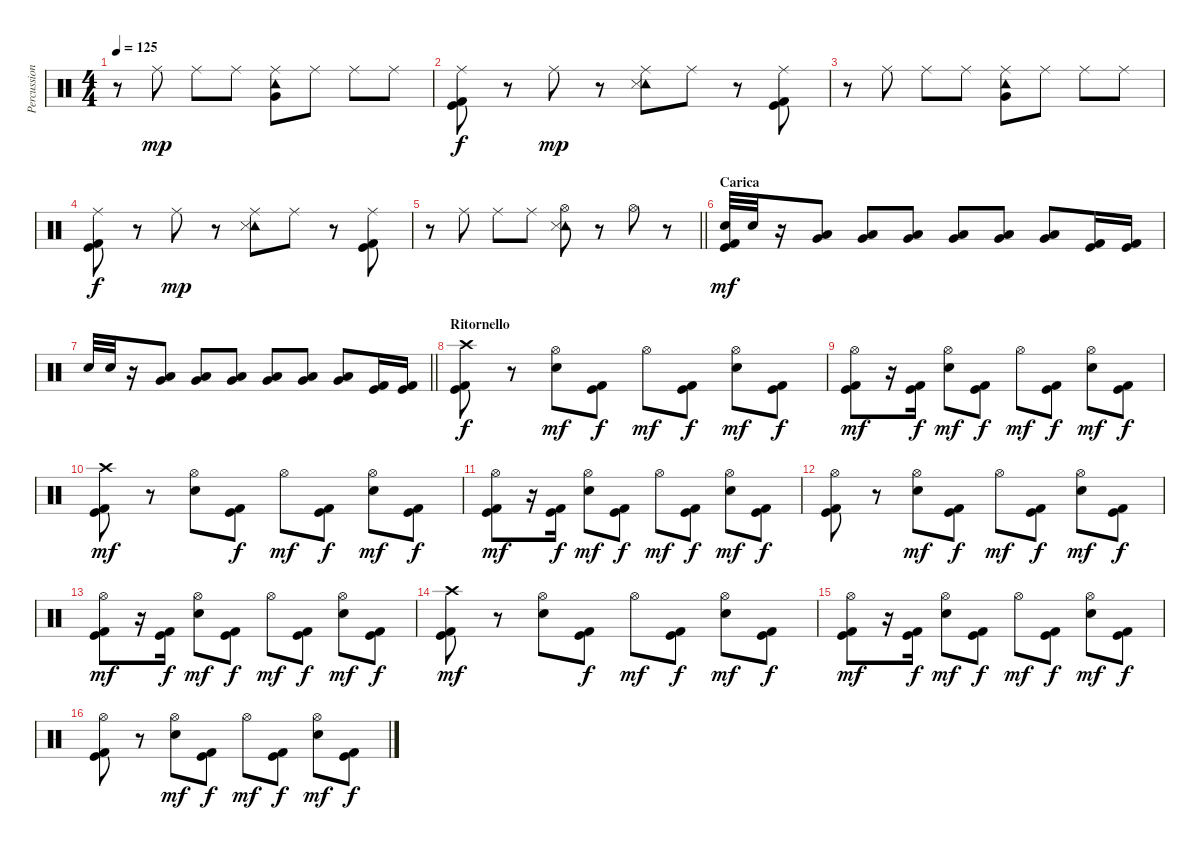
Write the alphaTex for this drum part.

\track ("Percussioni" "Percussion") {instrument percussion}
\staff {score}
\articulation defaults
\ts (4 4)
\tempo 125
\clef neutral
\ks c
r.8{dy mp} "Ride (middle)".8 "Ride (middle)".8 "Ride (middle)".8 ("Ride (middle)" "Tambourine (hit)" "Very Low Tom (hit)").8 "Ride (middle)".8 "Ride (middle)".8 "Ride (middle)".8 |
("Ride (middle)" "Kick (hit)" "Kick (hit) 2").8{dy f} r.8 "Ride (middle)".8{dy mp} r.8 ("Ride (middle)" "Tambourine (hit)" "Snare (side stick) 3").8 "Ride (middle)".8 r.8 ("Ride (middle)" "Kick (hit)" "Kick (hit) 2").8 |
r.8 "Ride (middle)".8 "Ride (middle)".8 "Ride (middle)".8 ("Ride (middle)" "Tambourine (hit)" "Very Low Tom (hit)").8 "Ride (middle)".8 "Ride (middle)".8 "Ride (middle)".8 |
("Ride (middle)" "Kick (hit)" "Kick (hit) 2").8{dy f} r.8 "Ride (middle)".8{dy mp} r.8 ("Ride (middle)" "Tambourine (hit)" "Snare (side stick) 3").8 "Ride (middle)".8 r.8 ("Ride (middle)" "Kick (hit)" "Kick (hit) 2").8 |
\barLineRight lightlight
r.8 "Ride (middle)".8 "Ride (middle)".8 "Ride (middle)".8 ("Hi-Hat (open)" "Tambourine (hit)" "Snare (side stick) 3").8 r.8 "Hi-Hat (open)".8 r.8 |
\section ("" "Carica")
("Electric Snare (hit)" "Kick (hit)" "Kick (hit) 2").32{dy mf} "Electric Snare (hit)".32 r.16 ("Very Low Tom (hit)" "Low Tom (hit)").8 ("Very Low Tom (hit)" "Low Tom (hit)").8 ("Very Low Tom (hit)" "Low Tom (hit)").8 ("Very Low Tom (hit)" "Low Tom (hit)").8 ("Very Low Tom (hit)" "Low Tom (hit)").8 ("Very Low Tom (hit)" "Low Tom (hit)").8 ("Kick (hit)" "Kick (hit) 2").16 ("Kick (hit)" "Kick (hit) 2").16 |
\barLineRight lightlight "Electric Snare (hit)".32 "Electric Snare (hit)".32
r.16 ("Very Low Tom (hit)" "Low Tom (hit)").8 ("Very Low Tom (hit)" "Low Tom (hit)").8 ("Very Low Tom (hit)" "Low Tom (hit)").8 ("Very Low Tom (hit)" "Low Tom (hit)").8 ("Very Low Tom (hit)" "Low Tom (hit)").8 ("Very Low Tom (hit)" "Low Tom (hit)").8 ("Kick (hit)" "Kick (hit) 2").16 ("Kick (hit)" "Kick (hit) 2").16 |
\section ("" "Ritornello")
("Crash high (hit)" "Kick (hit)" "Kick (hit) 2").8{dy f} r.8 ("Hi-Hat (open)" "Electric Snare (hit)").8{dy mf} ("Kick (hit)" "Kick (hit) 2").8{dy f} "Hi-Hat (open)".8{dy mf} ("Kick (hit)" "Kick (hit) 2").8{dy f} ("Hi-Hat (open)" "Electric Snare (hit)").8{dy mf} ("Kick (hit)" "Kick (hit) 2").8{dy f} |
("Hi-Hat (open)" "Kick (hit)" "Kick (hit) 2").8{dy mf} r.16 ("Kick (hit)" "Kick (hit) 2").16{dy f} ("Hi-Hat (open)" "Electric Snare (hit)").8{dy mf} ("Kick (hit)" "Kick (hit) 2").8{dy f} "Hi-Hat (open)".8{dy mf} ("Kick (hit)" "Kick (hit) 2").8{dy f} ("Hi-Hat (open)" "Electric Snare (hit)").8{dy mf} ("Kick (hit)" "Kick (hit) 2").8{dy f} |
("Crash high (hit)" "Kick (hit)" "Kick (hit) 2").8{dy mf} r.8 ("Hi-Hat (open)" "Electric Snare (hit)").8 ("Kick (hit)" "Kick (hit) 2").8{dy f} "Hi-Hat (open)".8{dy mf} ("Kick (hit)" "Kick (hit) 2").8{dy f} ("Hi-Hat (open)" "Electric Snare (hit)").8{dy mf} ("Kick (hit)" "Kick (hit) 2").8{dy f} |
("Hi-Hat (open)" "Kick (hit)" "Kick (hit) 2").8{dy mf} r.16 ("Kick (hit)" "Kick (hit) 2").16{dy f} ("Hi-Hat (open)" "Electric Snare (hit)").8{dy mf} ("Kick (hit)" "Kick (hit) 2").8{dy f} "Hi-Hat (open)".8{dy mf} ("Kick (hit)" "Kick (hit) 2").8{dy f} ("Hi-Hat (open)" "Electric Snare (hit)").8{dy mf} ("Kick (hit)" "Kick (hit) 2").8{dy f} |
("Hi-Hat (open)" "Kick (hit)" "Kick (hit) 2").8 r.8 ("Hi-Hat (open)" "Electric Snare (hit)").8{dy mf} ("Kick (hit)" "Kick (hit) 2").8{dy f} "Hi-Hat (open)".8{dy mf} ("Kick (hit)" "Kick (hit) 2").8{dy f} ("Hi-Hat (open)" "Electric Snare (hit)").8{dy mf} ("Kick (hit)" "Kick (hit) 2").8{dy f} |
("Hi-Hat (open)" "Kick (hit)" "Kick (hit) 2").8{dy mf} r.16 ("Kick (hit)" "Kick (hit) 2").16{dy f} ("Hi-Hat (open)" "Electric Snare (hit)").8{dy mf} ("Kick (hit)" "Kick (hit) 2").8{dy f} "Hi-Hat (open)".8{dy mf} ("Kick (hit)" "Kick (hit) 2").8{dy f} ("Hi-Hat (open)" "Electric Snare (hit)").8{dy mf} ("Kick (hit)" "Kick (hit) 2").8{dy f} |
("Crash high (hit)" "Kick (hit)" "Kick (hit) 2").8{dy mf} r.8 ("Hi-Hat (open)" "Electric Snare (hit)").8 ("Kick (hit)" "Kick (hit) 2").8{dy f} "Hi-Hat (open)".8{dy mf} ("Kick (hit)" "Kick (hit) 2").8{dy f} ("Hi-Hat (open)" "Electric Snare (hit)").8{dy mf} ("Kick (hit)" "Kick (hit) 2").8{dy f} |
("Hi-Hat (open)" "Kick (hit)" "Kick (hit) 2").8{dy mf} r.16 ("Kick (hit)" "Kick (hit) 2").16{dy f} ("Hi-Hat (open)" "Electric Snare (hit)").8{dy mf} ("Kick (hit)" "Kick (hit) 2").8{dy f} "Hi-Hat (open)".8{dy mf} ("Kick (hit)" "Kick (hit) 2").8{dy f} ("Hi-Hat (open)" "Electric Snare (hit)").8{dy mf} ("Kick (hit)" "Kick (hit) 2").8{dy f} |
("Hi-Hat (open)" "Kick (hit)" "Kick (hit) 2").8 r.8 ("Hi-Hat (open)" "Electric Snare (hit)").8{dy mf} ("Kick (hit)" "Kick (hit) 2").8{dy f} "Hi-Hat (open)".8{dy mf} ("Kick (hit)" "Kick (hit) 2").8{dy f} ("Hi-Hat (open)" "Electric Snare (hit)").8{dy mf} ("Kick (hit)" "Kick (hit) 2").8{dy f}
